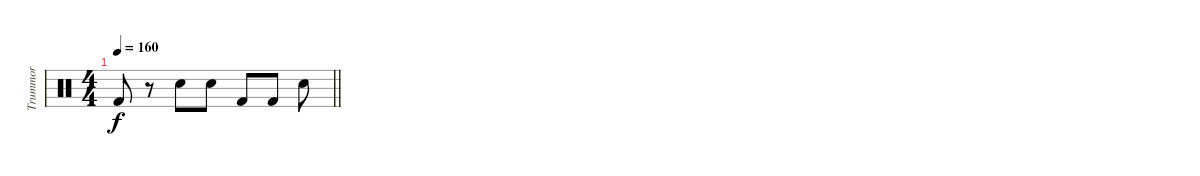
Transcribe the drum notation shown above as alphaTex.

\track ("Trummor" "Trummor") {instrument percussion}
\staff {score}
\articulation defaults
\ts (4 4)
\tempo 160
\clef neutral
\barLineRight lightlight
\ks c "Kick (hit) 2".8{dy f}
r.8 "Snare (hit) 2".8 "Snare (hit) 2".8 "Kick (hit) 2".8 "Kick (hit) 2".8 "Snare (hit) 2".8
